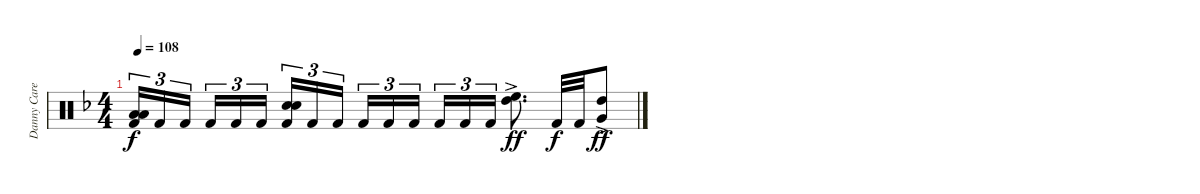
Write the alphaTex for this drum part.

\track ("Danny Carey" "Danny Care") {instrument percussion}
\staff {score}
\articulation defaults
\ts (4 4)
\tempo 108
\clef neutral
\ks dminor
("Low Floor Tom (hit)" "Low Floor Tom (hit)" "Kick (hit) 2").16{tu (3 2) dy f} "Kick (hit) 2".16{tu (3 2)} "Kick (hit) 2".16{tu (3 2) beam splitsecondary} "Kick (hit) 2".16{tu (3 2)} "Kick (hit) 2".16{tu (3 2)} "Kick (hit) 2".16{tu (3 2)} ("Electric Snare (hit)" "Electric Snare (hit)" "Kick (hit) 2").16{tu (3 2)} "Kick (hit) 2".16{tu (3 2)} "Kick (hit) 2".16{tu (3 2) beam splitsecondary} "Kick (hit) 2".16{tu (3 2)} "Kick (hit) 2".16{tu (3 2)} "Kick (hit) 2".16{tu (3 2)} "Kick (hit) 2".16{tu (3 2)} "Kick (hit) 2".16{tu (3 2)} "Kick (hit) 2".16{tu (3 2)} ("High Floor Tom (hit)"{ac} "High Tom (hit)"{ac}).8{d dy ff} "Kick (hit) 2".32{dy f} "Kick (hit) 2".32 ("High Tom (hit)"{ac} "Very Low Tom (hit)"{ac}).8{dy ff}
